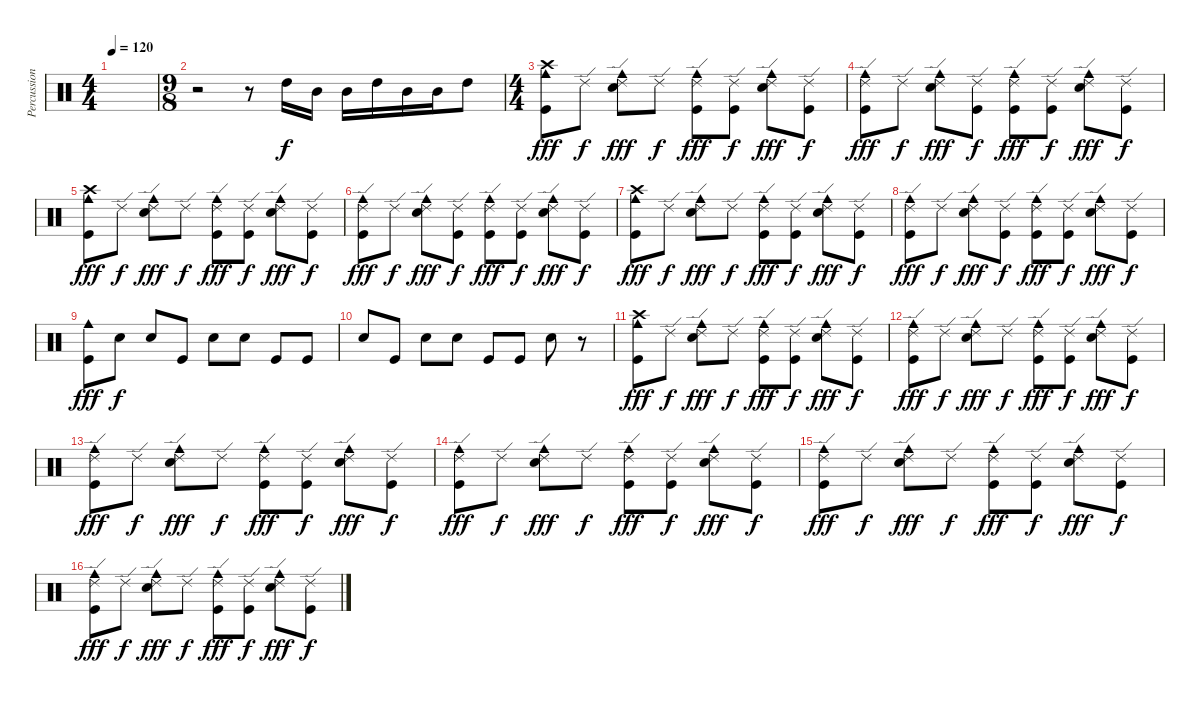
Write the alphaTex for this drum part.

\track ("Percussion" "Percussion") {instrument percussion}
\staff {score}
\articulation defaults
\ts (4 4)
\tempo 120
\clef neutral
\ks c
|
\ts (9 8)
r.2 r.8 "High Tom (hit)".16 "Mid Tom (hit)".16 "Mid Tom (hit)".16 "High Tom (hit)".16 "Mid Tom (hit)".16 "Mid Tom (hit)".16 "High Tom (hit)".8 |
\ts (4 4)
("Crash high (hit)" "Cowbell medium (hit)" "Kick (hit)").8{dy fff} "Ride (edge) 2".8{dy f} ("Ride (edge) 2" "Cowbell medium (hit)" "Snare (hit) 2").8{dy fff} "Ride (edge) 2".8{dy f} ("Ride (edge) 2" "Cowbell medium (hit)" "Kick (hit)").8{dy fff} ("Ride (edge) 2" "Kick (hit)").8{dy f} ("Ride (edge) 2" "Cowbell medium (hit)" "Snare (hit) 2").8{dy fff} ("Ride (edge) 2" "Kick (hit)").8{dy f} |
("Ride (edge) 2" "Cowbell medium (hit)" "Kick (hit)").8{dy fff} "Ride (edge) 2".8{dy f} ("Ride (edge) 2" "Cowbell medium (hit)" "Snare (hit) 2").8{dy fff} ("Ride (edge) 2" "Kick (hit)").8{dy f} ("Ride (edge) 2" "Cowbell medium (hit)" "Kick (hit)").8{dy fff} ("Ride (edge) 2" "Kick (hit)").8{dy f} ("Ride (edge) 2" "Cowbell medium (hit)" "Snare (hit) 2").8{dy fff} ("Ride (edge) 2" "Kick (hit)").8{dy f} |
("Crash high (hit)" "Cowbell medium (hit)" "Kick (hit)").8{dy fff} "Ride (edge) 2".8{dy f} ("Ride (edge) 2" "Cowbell medium (hit)" "Snare (hit) 2").8{dy fff} "Ride (edge) 2".8{dy f} ("Ride (edge) 2" "Cowbell medium (hit)" "Kick (hit)").8{dy fff} ("Ride (edge) 2" "Kick (hit)").8{dy f} ("Ride (edge) 2" "Cowbell medium (hit)" "Snare (hit) 2").8{dy fff} ("Ride (edge) 2" "Kick (hit)").8{dy f} |
("Ride (edge) 2" "Cowbell medium (hit)" "Kick (hit)").8{dy fff} "Ride (edge) 2".8{dy f} ("Ride (edge) 2" "Cowbell medium (hit)" "Snare (hit) 2").8{dy fff} ("Ride (edge) 2" "Kick (hit)").8{dy f} ("Ride (edge) 2" "Cowbell medium (hit)" "Kick (hit)").8{dy fff} ("Ride (edge) 2" "Kick (hit)").8{dy f} ("Ride (edge) 2" "Cowbell medium (hit)" "Snare (hit) 2").8{dy fff} ("Ride (edge) 2" "Kick (hit)").8{dy f} |
("Crash high (hit)" "Cowbell medium (hit)" "Kick (hit)").8{dy fff} "Ride (edge) 2".8{dy f} ("Ride (edge) 2" "Cowbell medium (hit)" "Snare (hit) 2").8{dy fff} "Ride (edge) 2".8{dy f} ("Ride (edge) 2" "Cowbell medium (hit)" "Kick (hit)").8{dy fff} ("Ride (edge) 2" "Kick (hit)").8{dy f} ("Ride (edge) 2" "Cowbell medium (hit)" "Snare (hit) 2").8{dy fff} ("Ride (edge) 2" "Kick (hit)").8{dy f} |
("Ride (edge) 2" "Cowbell medium (hit)" "Kick (hit)").8{dy fff} "Ride (edge) 2".8{dy f} ("Ride (edge) 2" "Cowbell medium (hit)" "Snare (hit) 2").8{dy fff} ("Ride (edge) 2" "Kick (hit)").8{dy f} ("Ride (edge) 2" "Cowbell medium (hit)" "Kick (hit)").8{dy fff} ("Ride (edge) 2" "Kick (hit)").8{dy f} ("Ride (edge) 2" "Cowbell medium (hit)" "Snare (hit) 2").8{dy fff} ("Ride (edge) 2" "Kick (hit)").8{dy f} |
("Cowbell medium (hit)" "Kick (hit)").8{dy fff} "Snare (hit) 2".8{dy f} "Snare (hit) 2".8 "Kick (hit)".8 "Snare (hit) 2".8 "Snare (hit) 2".8 "Kick (hit)".8 "Kick (hit)".8 |
"Snare (hit) 2".8 "Kick (hit)".8 "Snare (hit) 2".8 "Snare (hit) 2".8 "Kick (hit)".8 "Kick (hit)".8 "Snare (hit) 2".8 r.8 |
("Crash high (hit)" "Cowbell medium (hit)" "Kick (hit)").8{dy fff} "Ride (edge) 2".8{dy f} ("Ride (edge) 2" "Cowbell medium (hit)" "Snare (hit) 2").8{dy fff} "Ride (edge) 2".8{dy f} ("Ride (edge) 2" "Cowbell medium (hit)" "Kick (hit)").8{dy fff} ("Ride (edge) 2" "Kick (hit)").8{dy f} ("Ride (edge) 2" "Cowbell medium (hit)" "Snare (hit) 2").8{dy fff} ("Ride (edge) 2" "Kick (hit)").8{dy f} |
("Ride (edge) 2" "Cowbell medium (hit)" "Kick (hit)").8{dy fff} "Ride (edge) 2".8{dy f} ("Ride (edge) 2" "Cowbell medium (hit)" "Snare (hit) 2").8{dy fff} "Ride (edge) 2".8{dy f} ("Ride (edge) 2" "Cowbell medium (hit)" "Kick (hit)").8{dy fff} ("Ride (edge) 2" "Kick (hit)").8{dy f} ("Ride (edge) 2" "Cowbell medium (hit)" "Snare (hit) 2").8{dy fff} ("Ride (edge) 2" "Kick (hit)").8{dy f} |
("Ride (edge) 2" "Cowbell medium (hit)" "Kick (hit)").8{dy fff} "Ride (edge) 2".8{dy f} ("Ride (edge) 2" "Cowbell medium (hit)" "Snare (hit) 2").8{dy fff} "Ride (edge) 2".8{dy f} ("Ride (edge) 2" "Cowbell medium (hit)" "Kick (hit)").8{dy fff} ("Ride (edge) 2" "Kick (hit)").8{dy f} ("Ride (edge) 2" "Cowbell medium (hit)" "Snare (hit) 2").8{dy fff} ("Ride (edge) 2" "Kick (hit)").8{dy f} |
("Ride (edge) 2" "Cowbell medium (hit)" "Kick (hit)").8{dy fff} "Ride (edge) 2".8{dy f} ("Ride (edge) 2" "Cowbell medium (hit)" "Snare (hit) 2").8{dy fff} "Ride (edge) 2".8{dy f} ("Ride (edge) 2" "Cowbell medium (hit)" "Kick (hit)").8{dy fff} ("Ride (edge) 2" "Kick (hit)").8{dy f} ("Ride (edge) 2" "Cowbell medium (hit)" "Snare (hit) 2").8{dy fff} ("Ride (edge) 2" "Kick (hit)").8{dy f} |
("Ride (edge) 2" "Cowbell medium (hit)" "Kick (hit)").8{dy fff} "Ride (edge) 2".8{dy f} ("Ride (edge) 2" "Cowbell medium (hit)" "Snare (hit) 2").8{dy fff} "Ride (edge) 2".8{dy f} ("Ride (edge) 2" "Cowbell medium (hit)" "Kick (hit)").8{dy fff} ("Ride (edge) 2" "Kick (hit)").8{dy f} ("Ride (edge) 2" "Cowbell medium (hit)" "Snare (hit) 2").8{dy fff} ("Ride (edge) 2" "Kick (hit)").8{dy f} |
("Ride (edge) 2" "Cowbell medium (hit)" "Kick (hit)").8{dy fff} "Ride (edge) 2".8{dy f} ("Ride (edge) 2" "Cowbell medium (hit)" "Snare (hit) 2").8{dy fff} "Ride (edge) 2".8{dy f} ("Ride (edge) 2" "Cowbell medium (hit)" "Kick (hit)").8{dy fff} ("Ride (edge) 2" "Kick (hit)").8{dy f} ("Ride (edge) 2" "Cowbell medium (hit)" "Snare (hit) 2").8{dy fff} ("Ride (edge) 2" "Kick (hit)").8{dy f}
